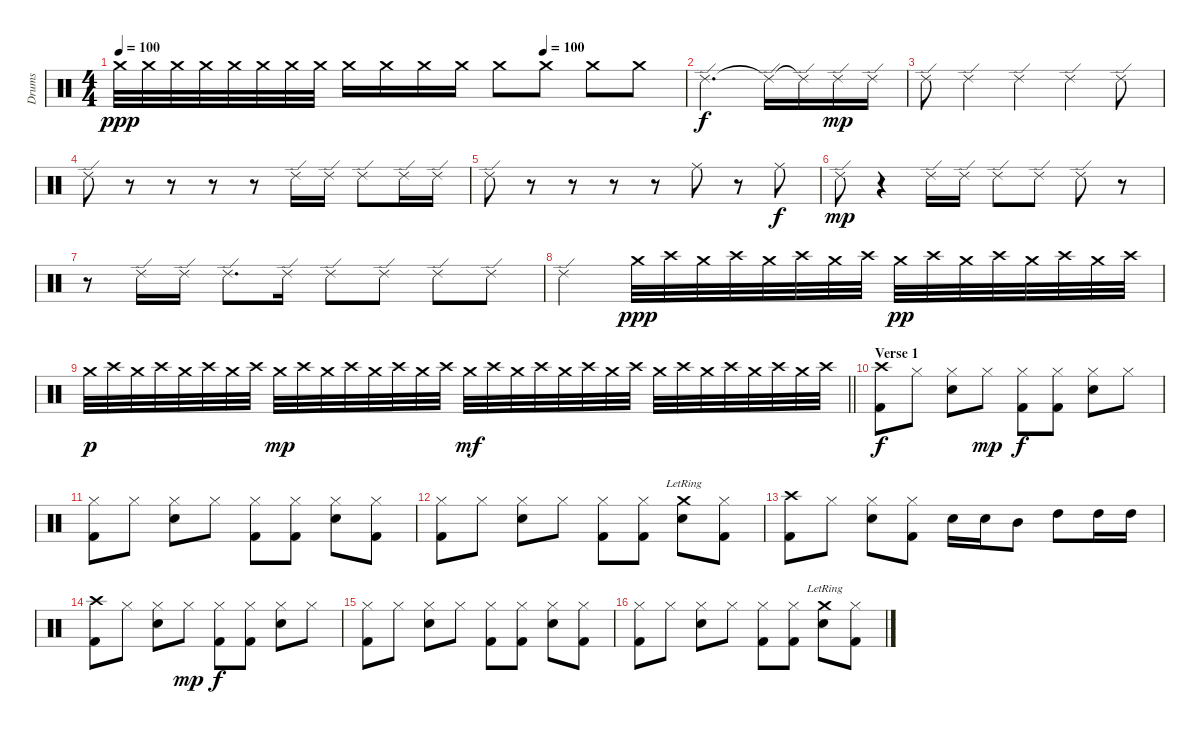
\track ("Drums" "Drums") {instrument percussion}
\staff {score}
\articulation defaults
\ts (4 4)
\tempo 100
\tempo (100 0.75)
\clef neutral
\ks c "Crash medium (hit)".32{dy ppp} "Crash medium (hit)".32 "Crash medium (hit)".32 "Crash medium (hit)".32 "Crash medium (hit)".32 "Crash medium (hit)".32 "Crash medium (hit)".32 "Crash medium (hit)".32 "Crash medium (hit)".16 "Crash medium (hit)".16 "Crash medium (hit)".16 "Crash medium (hit)".16 "Crash medium (hit)".8 "Crash medium (hit)".8 "Crash medium (hit)".8 "Crash medium (hit)".8
|
"Ride (edge) 2".2{d dy f} "Ride (edge) 2"{t}.16 "Ride (edge) 2"{t}.16 "Ride (edge) 2".16{dy mp} "Ride (edge) 2".16 |
"Ride (edge) 2".8 "Ride (edge) 2".4 "Ride (edge) 2".4 "Ride (edge) 2".4 "Ride (edge) 2".8 |
"Ride (edge) 2".8 r.8 r.8 r.8 r.8 "Ride (edge) 2".16 "Ride (edge) 2".16 "Ride (edge) 2".8 "Ride (edge) 2".16 "Ride (edge) 2".16 |
"Ride (edge) 2".8 r.8 r.8 r.8 r.8 "Ride (middle)".8 r.8 "Ride (middle)".8{dy f} |
"Ride (edge) 2".8{dy mp} r.4 "Ride (edge) 2".16 "Ride (edge) 2".16 "Ride (edge) 2".8 "Ride (edge) 2".8 "Ride (edge) 2".8 r.8 |
r.8 "Ride (edge) 2".16 "Ride (edge) 2".16 "Ride (edge) 2".8{d} "Ride (edge) 2".16 "Ride (edge) 2".8 "Ride (edge) 2".8 "Ride (edge) 2".8 "Ride (edge) 2".8 |
"Ride (edge) 2".2 "Crash medium (hit)".32{dy ppp} "Crash high (hit)".32 "Crash medium (hit)".32 "Crash high (hit)".32 "Crash medium (hit)".32 "Crash high (hit)".32 "Crash medium (hit)".32 "Crash high (hit)".32 "Crash medium (hit)".32{dy pp} "Crash high (hit)".32 "Crash medium (hit)".32 "Crash high (hit)".32 "Crash medium (hit)".32 "Crash high (hit)".32 "Crash medium (hit)".32 "Crash high (hit)".32 |
\barLineRight lightlight "Crash medium (hit)".32{dy p} "Crash high (hit)".32 "Crash medium (hit)".32 "Crash high (hit)".32 "Crash medium (hit)".32 "Crash high (hit)".32 "Crash medium (hit)".32 "Crash high (hit)".32 "Crash medium (hit)".32{dy mp} "Crash high (hit)".32 "Crash medium (hit)".32 "Crash high (hit)".32 "Crash medium (hit)".32 "Crash high (hit)".32 "Crash medium (hit)".32 "Crash high (hit)".32 "Crash medium (hit)".32{dy mf} "Crash high (hit)".32 "Crash medium (hit)".32 "Crash high (hit)".32 "Crash medium (hit)".32 "Crash high (hit)".32 "Crash medium (hit)".32 "Crash high (hit)".32 "Crash medium (hit)".32 "Crash high (hit)".32 "Crash medium (hit)".32 "Crash high (hit)".32 "Crash medium (hit)".32 "Crash high (hit)".32 "Crash medium (hit)".32 "Crash high (hit)".32
|
\section ("" "Verse 1")
("Crash high (hit)" "Kick (hit) 2").8{dy f} "Hi-Hat (closed)".8 ("Hi-Hat (closed)" "Snare (hit) 2").8 "Hi-Hat (closed)".8{dy mp} ("Hi-Hat (closed)" "Kick (hit) 2").8{dy f} ("Hi-Hat (closed)" "Kick (hit) 2").8 ("Hi-Hat (closed)" "Snare (hit) 2").8 "Hi-Hat (closed)".8 |
("Hi-Hat (closed)" "Kick (hit) 2").8 "Hi-Hat (closed)".8 ("Hi-Hat (closed)" "Snare (hit) 2").8 "Hi-Hat (closed)".8 ("Hi-Hat (closed)" "Kick (hit) 2").8 ("Hi-Hat (closed)" "Kick (hit) 2").8 ("Hi-Hat (closed)" "Snare (hit) 2").8 ("Hi-Hat (closed)" "Kick (hit) 2").8 |
("Hi-Hat (closed)" "Kick (hit) 2").8 "Hi-Hat (closed)".8 ("Hi-Hat (closed)" "Snare (hit) 2").8 "Hi-Hat (closed)".8 ("Hi-Hat (closed)" "Kick (hit) 2").8 ("Hi-Hat (closed)" "Kick (hit) 2").8 ("Crash medium (hit)"{lr} "Snare (hit) 2").8 ("Hi-Hat (closed)" "Kick (hit) 2").8 |
("Crash high (hit)" "Kick (hit) 2").8 "Hi-Hat (closed)".8 ("Hi-Hat (closed)" "Snare (hit) 2").8 ("Hi-Hat (closed)" "Kick (hit) 2").8 "Snare (hit) 2".16 "Snare (hit) 2".16 "Mid Tom (hit)".8 "High Tom (hit)".8 "High Tom (hit)".16 "High Tom (hit)".16 |
("Crash high (hit)" "Kick (hit) 2").8 "Hi-Hat (closed)".8 ("Hi-Hat (closed)" "Snare (hit) 2").8 "Hi-Hat (closed)".8{dy mp} ("Hi-Hat (closed)" "Kick (hit) 2").8{dy f} ("Hi-Hat (closed)" "Kick (hit) 2").8 ("Hi-Hat (closed)" "Snare (hit) 2").8 "Hi-Hat (closed)".8 |
("Hi-Hat (closed)" "Kick (hit) 2").8 "Hi-Hat (closed)".8 ("Hi-Hat (closed)" "Snare (hit) 2").8 "Hi-Hat (closed)".8 ("Hi-Hat (closed)" "Kick (hit) 2").8 ("Hi-Hat (closed)" "Kick (hit) 2").8 ("Hi-Hat (closed)" "Snare (hit) 2").8 ("Hi-Hat (closed)" "Kick (hit) 2").8 |
("Hi-Hat (closed)" "Kick (hit) 2").8 "Hi-Hat (closed)".8 ("Hi-Hat (closed)" "Snare (hit) 2").8 "Hi-Hat (closed)".8 ("Hi-Hat (closed)" "Kick (hit) 2").8 ("Hi-Hat (closed)" "Kick (hit) 2").8 ("Crash medium (hit)"{lr} "Snare (hit) 2").8 ("Hi-Hat (closed)" "Kick (hit) 2").8
